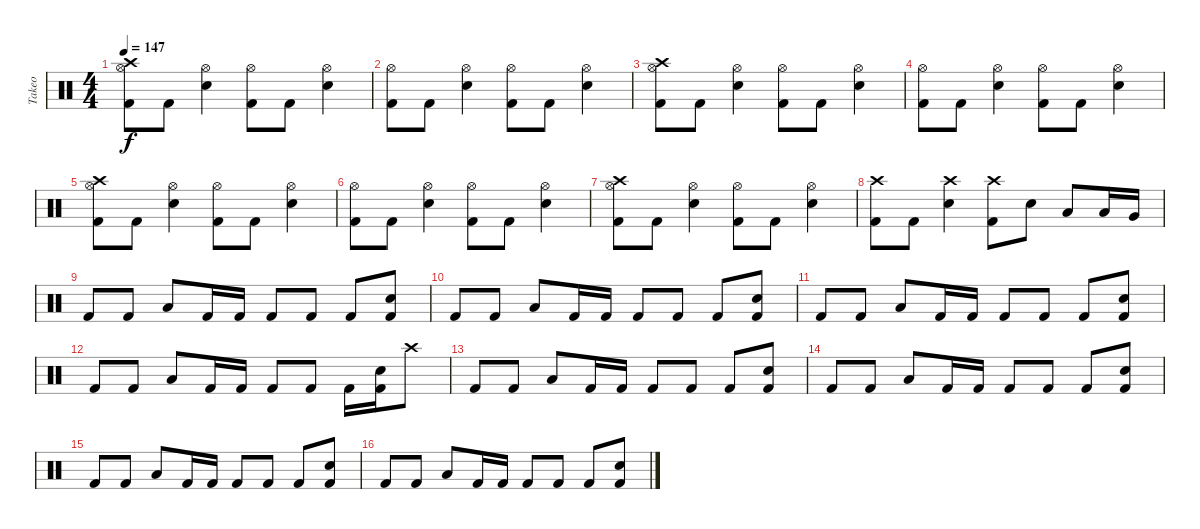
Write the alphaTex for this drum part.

\track ("Takeo" "Takeo") {instrument percussion}
\staff {score}
\articulation defaults
\ts (4 4)
\tempo 147
\clef neutral
\ks c
("Kick (hit) 2" "Hi-Hat (open)" "Crash high (hit)").8{dy f} "Kick (hit) 2".8 ("Snare (hit) 2" "Hi-Hat (open)").4 ("Kick (hit) 2" "Hi-Hat (open)").8 "Kick (hit) 2".8 ("Snare (hit) 2" "Hi-Hat (open)").4 |
("Kick (hit) 2" "Hi-Hat (open)").8 "Kick (hit) 2".8 ("Snare (hit) 2" "Hi-Hat (open)").4 ("Kick (hit) 2" "Hi-Hat (open)").8 "Kick (hit) 2".8 ("Snare (hit) 2" "Hi-Hat (open)").4 |
("Kick (hit) 2" "Hi-Hat (open)" "Crash high (hit)").8 "Kick (hit) 2".8 ("Snare (hit) 2" "Hi-Hat (open)").4 ("Kick (hit) 2" "Hi-Hat (open)").8 "Kick (hit) 2".8 ("Snare (hit) 2" "Hi-Hat (open)").4 |
("Kick (hit) 2" "Hi-Hat (open)").8 "Kick (hit) 2".8 ("Snare (hit) 2" "Hi-Hat (open)").4 ("Kick (hit) 2" "Hi-Hat (open)").8 "Kick (hit) 2".8 ("Snare (hit) 2" "Hi-Hat (open)").4 |
("Kick (hit) 2" "Hi-Hat (open)" "Crash high (hit)").8 "Kick (hit) 2".8 ("Snare (hit) 2" "Hi-Hat (open)").4 ("Kick (hit) 2" "Hi-Hat (open)").8 "Kick (hit) 2".8 ("Snare (hit) 2" "Hi-Hat (open)").4 |
("Kick (hit) 2" "Hi-Hat (open)").8 "Kick (hit) 2".8 ("Snare (hit) 2" "Hi-Hat (open)").4 ("Kick (hit) 2" "Hi-Hat (open)").8 "Kick (hit) 2".8 ("Snare (hit) 2" "Hi-Hat (open)").4 |
("Kick (hit) 2" "Hi-Hat (open)" "Crash high (hit)").8 "Kick (hit) 2".8 ("Snare (hit) 2" "Hi-Hat (open)").4 ("Kick (hit) 2" "Hi-Hat (open)").8 "Kick (hit) 2".8 ("Snare (hit) 2" "Hi-Hat (open)").4 |
("Kick (hit) 2" "Crash high (hit)").8 "Kick (hit) 2".8 ("Snare (hit) 2" "Crash high (hit)").4 ("Kick (hit) 2" "Crash high (hit)").8 "Snare (hit) 2".8 "Low Tom (hit)".8 "Low Tom (hit)".16 "Very Low Tom (hit)".16 |
"Kick (hit) 2".8 "Kick (hit) 2".8 "Low Tom (hit)".8 "Kick (hit) 2".16 "Kick (hit) 2".16 "Kick (hit) 2".8 "Kick (hit) 2".8 "Kick (hit) 2".8 ("Kick (hit) 2" "Snare (hit) 2").8 |
"Kick (hit) 2".8 "Kick (hit) 2".8 "Low Tom (hit)".8 "Kick (hit) 2".16 "Kick (hit) 2".16 "Kick (hit) 2".8 "Kick (hit) 2".8 "Kick (hit) 2".8 ("Kick (hit) 2" "Snare (hit) 2").8 |
"Kick (hit) 2".8 "Kick (hit) 2".8 "Low Tom (hit)".8 "Kick (hit) 2".16 "Kick (hit) 2".16 "Kick (hit) 2".8 "Kick (hit) 2".8 "Kick (hit) 2".8 ("Kick (hit) 2" "Snare (hit) 2").8 |
"Kick (hit) 2".8 "Kick (hit) 2".8 "Low Tom (hit)".8 "Kick (hit) 2".16 "Kick (hit) 2".16 "Kick (hit) 2".8 "Kick (hit) 2".8 "Kick (hit) 2".16 ("Kick (hit) 2" "Snare (hit) 2").16 "Crash high (hit)".8 |
"Kick (hit) 2".8 "Kick (hit) 2".8 "Low Tom (hit)".8 "Kick (hit) 2".16 "Kick (hit) 2".16 "Kick (hit) 2".8 "Kick (hit) 2".8 "Kick (hit) 2".8 ("Kick (hit) 2" "Snare (hit) 2").8 |
"Kick (hit) 2".8 "Kick (hit) 2".8 "Low Tom (hit)".8 "Kick (hit) 2".16 "Kick (hit) 2".16 "Kick (hit) 2".8 "Kick (hit) 2".8 "Kick (hit) 2".8 ("Kick (hit) 2" "Snare (hit) 2").8 |
"Kick (hit) 2".8 "Kick (hit) 2".8 "Low Tom (hit)".8 "Kick (hit) 2".16 "Kick (hit) 2".16 "Kick (hit) 2".8 "Kick (hit) 2".8 "Kick (hit) 2".8 ("Kick (hit) 2" "Snare (hit) 2").8 |
"Kick (hit) 2".8 "Kick (hit) 2".8 "Low Tom (hit)".8 "Kick (hit) 2".16 "Kick (hit) 2".16 "Kick (hit) 2".8 "Kick (hit) 2".8 "Kick (hit) 2".8 ("Kick (hit) 2" "Snare (hit) 2").8
